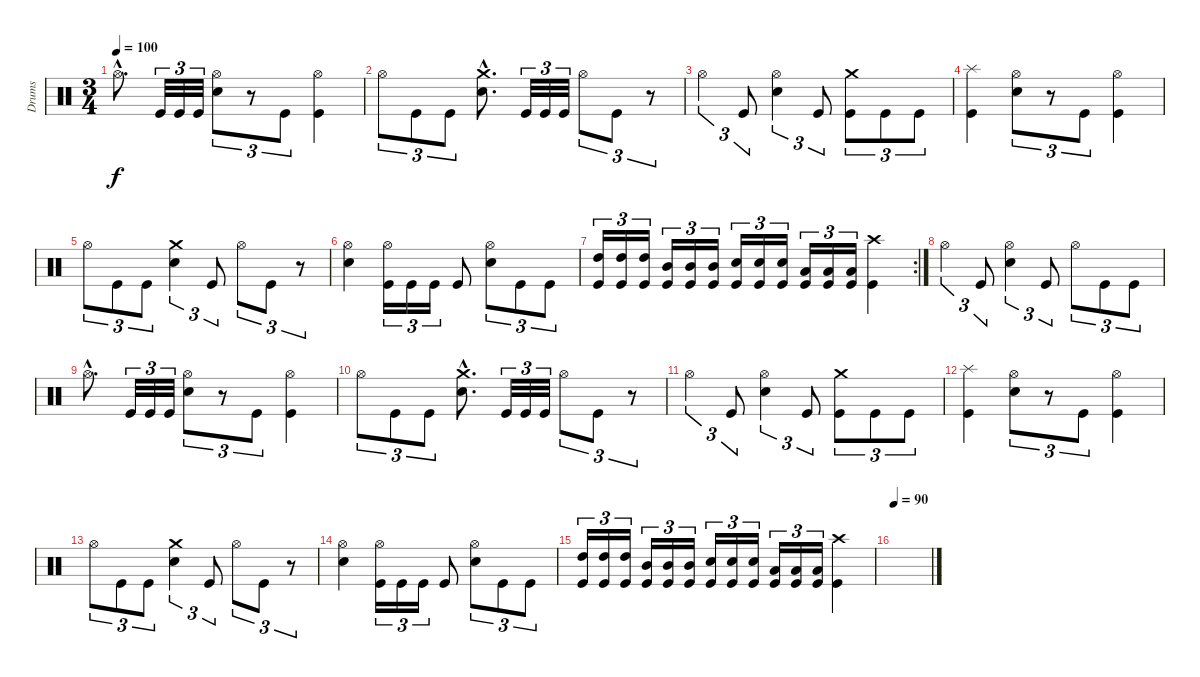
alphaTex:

\track ("Drums" "Drums") {instrument percussion}
\staff {score}
\articulation defaults
\ts (3 4)
\tempo 100
\clef neutral
\ks c "Hi-Hat (open)"{hac}.8{d dy f} "Kick (hit)".32{tu (3 2)} "Kick (hit)".32{tu (3 2)} "Kick (hit)".32{tu (3 2)}
("Hi-Hat (open)" "Electric Snare (hit)").8{tu (3 2)} r.8{tu (3 2)} "Kick (hit)".8{tu (3 2)} ("Hi-Hat (open)" "Kick (hit)").4 |
"Hi-Hat (open)".8{tu (3 2)} "Kick (hit)".8{tu (3 2)} "Kick (hit)".8{tu (3 2)} ("Crash medium (hit)"{hac} "Electric Snare (hit)"{hac}).8{d} "Kick (hit)".32{tu (3 2)} "Kick (hit)".32{tu (3 2)} "Kick (hit)".32{tu (3 2)} "Hi-Hat (open)".8{tu (3 2)} "Kick (hit)".8{tu (3 2)} r.8{tu (3 2)} |
"Hi-Hat (open)".4{tu (3 2)} "Kick (hit)".8{tu (3 2)} ("Hi-Hat (open)" "Electric Snare (hit)").4{tu (3 2)} "Kick (hit)".8{tu (3 2)} ("Crash medium (hit)" "Kick (hit)").8{tu (3 2)} "Kick (hit)".8{tu (3 2)} "Kick (hit)".8{tu (3 2)} |
("Splash (hit)" "Kick (hit)").4 ("Hi-Hat (open)" "Electric Snare (hit)").8{tu (3 2)} r.8{tu (3 2)} "Kick (hit)".8{tu (3 2)} ("Hi-Hat (open)" "Kick (hit)").4 |
"Hi-Hat (open)".8{tu (3 2)} "Kick (hit)".8{tu (3 2)} "Kick (hit)".8{tu (3 2)} ("Crash medium (hit)" "Electric Snare (hit)").4{tu (3 2)} "Kick (hit)".8{tu (3 2)} "Hi-Hat (open)".8{tu (3 2)} "Kick (hit)".8{tu (3 2)} r.8{tu (3 2)} |
("Hi-Hat (open)" "Electric Snare (hit)").4 ("Hi-Hat (open)" "Kick (hit)").16{tu (3 2)} "Kick (hit)".16{tu (3 2)} "Kick (hit)".16{tu (3 2)} "Kick (hit)".8 ("Hi-Hat (open)" "Electric Snare (hit)").8{tu (3 2)} "Kick (hit)".8{tu (3 2)} "Kick (hit)".8{tu (3 2)} |
\rc 2
("High Tom (hit)" "Kick (hit)").16{tu (3 2)} ("High Tom (hit)" "Kick (hit)").16{tu (3 2)} ("High Tom (hit)" "Kick (hit)").16{tu (3 2)} ("Mid Tom (hit)" "Kick (hit)").16{tu (3 2)} ("Mid Tom (hit)" "Kick (hit)").16{tu (3 2)} ("Mid Tom (hit)" "Kick (hit)").16{tu (3 2)} ("Electric Snare (hit)" "Kick (hit)").16{tu (3 2)} ("Electric Snare (hit)" "Kick (hit)").16{tu (3 2)} ("Electric Snare (hit)" "Kick (hit)").16{tu (3 2)} ("Low Tom (hit)" "Kick (hit)").16{tu (3 2)} ("Low Tom (hit)" "Kick (hit)").16{tu (3 2)} ("Low Tom (hit)" "Kick (hit)").16{tu (3 2)} ("Crash high (hit)" "Kick (hit)").4 |
"Hi-Hat (open)".4{tu (3 2)} "Kick (hit)".8{tu (3 2)} ("Hi-Hat (open)" "Electric Snare (hit)").4{tu (3 2)} "Kick (hit)".8{tu (3 2)} "Hi-Hat (open)".8{tu (3 2)} "Kick (hit)".8{tu (3 2)} "Kick (hit)".8{tu (3 2)} |
"Hi-Hat (open)"{hac}.8{d} "Kick (hit)".32{tu (3 2)} "Kick (hit)".32{tu (3 2)} "Kick (hit)".32{tu (3 2)} ("Hi-Hat (open)" "Electric Snare (hit)").8{tu (3 2)} r.8{tu (3 2)} "Kick (hit)".8{tu (3 2)} ("Hi-Hat (open)" "Kick (hit)").4 |
"Hi-Hat (open)".8{tu (3 2)} "Kick (hit)".8{tu (3 2)} "Kick (hit)".8{tu (3 2)} ("Crash medium (hit)"{hac} "Electric Snare (hit)"{hac}).8{d} "Kick (hit)".32{tu (3 2)} "Kick (hit)".32{tu (3 2)} "Kick (hit)".32{tu (3 2)} "Hi-Hat (open)".8{tu (3 2)} "Kick (hit)".8{tu (3 2)} r.8{tu (3 2)} |
"Hi-Hat (open)".4{tu (3 2)} "Kick (hit)".8{tu (3 2)} ("Hi-Hat (open)" "Electric Snare (hit)").4{tu (3 2)} "Kick (hit)".8{tu (3 2)} ("Crash medium (hit)" "Kick (hit)").8{tu (3 2)} "Kick (hit)".8{tu (3 2)} "Kick (hit)".8{tu (3 2)} |
("Splash (hit)" "Kick (hit)").4 ("Hi-Hat (open)" "Electric Snare (hit)").8{tu (3 2)} r.8{tu (3 2)} "Kick (hit)".8{tu (3 2)} ("Hi-Hat (open)" "Kick (hit)").4 |
"Hi-Hat (open)".8{tu (3 2)} "Kick (hit)".8{tu (3 2)} "Kick (hit)".8{tu (3 2)} ("Crash medium (hit)" "Electric Snare (hit)").4{tu (3 2)} "Kick (hit)".8{tu (3 2)} "Hi-Hat (open)".8{tu (3 2)} "Kick (hit)".8{tu (3 2)} r.8{tu (3 2)} |
("Hi-Hat (open)" "Electric Snare (hit)").4 ("Hi-Hat (open)" "Kick (hit)").16{tu (3 2)} "Kick (hit)".16{tu (3 2)} "Kick (hit)".16{tu (3 2)} "Kick (hit)".8 ("Hi-Hat (open)" "Electric Snare (hit)").8{tu (3 2)} "Kick (hit)".8{tu (3 2)} "Kick (hit)".8{tu (3 2)} |
("High Tom (hit)" "Kick (hit)").16{tu (3 2)} ("High Tom (hit)" "Kick (hit)").16{tu (3 2)} ("High Tom (hit)" "Kick (hit)").16{tu (3 2)} ("Mid Tom (hit)" "Kick (hit)").16{tu (3 2)} ("Mid Tom (hit)" "Kick (hit)").16{tu (3 2)} ("Mid Tom (hit)" "Kick (hit)").16{tu (3 2)} ("Electric Snare (hit)" "Kick (hit)").16{tu (3 2)} ("Electric Snare (hit)" "Kick (hit)").16{tu (3 2)} ("Electric Snare (hit)" "Kick (hit)").16{tu (3 2)} ("Low Tom (hit)" "Kick (hit)").16{tu (3 2)} ("Low Tom (hit)" "Kick (hit)").16{tu (3 2)} ("Low Tom (hit)" "Kick (hit)").16{tu (3 2)} ("Crash high (hit)" "Kick (hit)").4 |
\tempo 90
